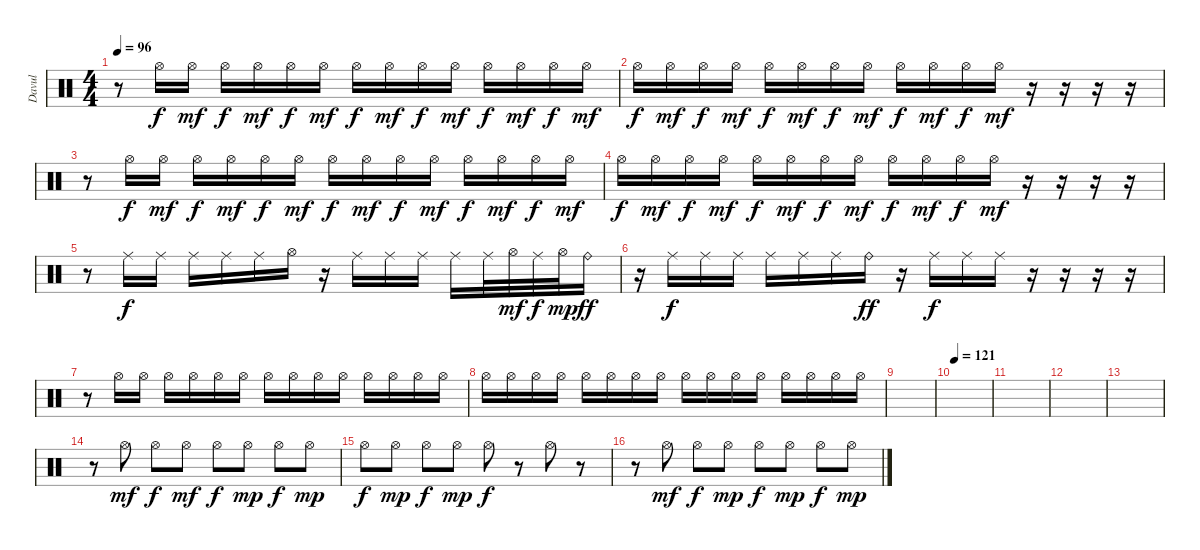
\track ("Davul" "Davul") {instrument percussion}
\staff {score}
\articulation defaults
\ts (4 4)
\tempo 96
\clef neutral
\ks c
r.8{dy mf} "Hi-Hat (open)".16{dy f} "Hi-Hat (open)".16{dy mf} "Hi-Hat (open)".16{dy f} "Hi-Hat (open)".16{dy mf} "Hi-Hat (open)".16{dy f} "Hi-Hat (open)".16{dy mf} "Hi-Hat (open)".16{dy f} "Hi-Hat (open)".16{dy mf} "Hi-Hat (open)".16{dy f} "Hi-Hat (open)".16{dy mf} "Hi-Hat (open)".16{dy f} "Hi-Hat (open)".16{dy mf} "Hi-Hat (open)".16{dy f} "Hi-Hat (open)".16{dy mf} |
"Hi-Hat (open)".16{dy f} "Hi-Hat (open)".16{dy mf} "Hi-Hat (open)".16{dy f} "Hi-Hat (open)".16{dy mf} "Hi-Hat (open)".16{dy f} "Hi-Hat (open)".16{dy mf} "Hi-Hat (open)".16{dy f} "Hi-Hat (open)".16{dy mf} "Hi-Hat (open)".16{dy f} "Hi-Hat (open)".16{dy mf} "Hi-Hat (open)".16{dy f} "Hi-Hat (open)".16{dy mf} r.16 r.16 r.16 r.16 |
r.8 "Hi-Hat (open)".16{dy f} "Hi-Hat (open)".16{dy mf} "Hi-Hat (open)".16{dy f} "Hi-Hat (open)".16{dy mf} "Hi-Hat (open)".16{dy f} "Hi-Hat (open)".16{dy mf} "Hi-Hat (open)".16{dy f} "Hi-Hat (open)".16{dy mf} "Hi-Hat (open)".16{dy f} "Hi-Hat (open)".16{dy mf} "Hi-Hat (open)".16{dy f} "Hi-Hat (open)".16{dy mf} "Hi-Hat (open)".16{dy f} "Hi-Hat (open)".16{dy mf} |
"Hi-Hat (open)".16{dy f} "Hi-Hat (open)".16{dy mf} "Hi-Hat (open)".16{dy f} "Hi-Hat (open)".16{dy mf} "Hi-Hat (open)".16{dy f} "Hi-Hat (open)".16{dy mf} "Hi-Hat (open)".16{dy f} "Hi-Hat (open)".16{dy mf} "Hi-Hat (open)".16{dy f} "Hi-Hat (open)".16{dy mf} "Hi-Hat (open)".16{dy f} "Hi-Hat (open)".16{dy mf} r.16 r.16 r.16 r.16 |
r.8 "Ride (middle)".16{dy f} "Ride (middle)".16 "Ride (middle)".16 "Ride (middle)".16 "Ride (middle)".16 "Hi-Hat (open)".16 r.16 "Ride (middle)".16 "Ride (middle)".16 "Ride (middle)".16 "Ride (middle)".16 "Ride (middle)".32 "Hi-Hat (open)".32{dy mf} "Ride (middle)".32{dy f} "Hi-Hat (open)".32{dy mp} "Ride (bell)".16{dy ff} |
r.16 "Ride (middle)".16{dy f} "Ride (middle)".16 "Ride (middle)".16 "Ride (middle)".16 "Ride (middle)".16 "Ride (middle)".16 "Ride (bell)".16{dy ff} r.16 "Ride (middle)".16{dy f} "Ride (middle)".16 "Ride (middle)".16 r.16 r.16 r.16 r.16 |
r.8 "Hi-Hat (open)".16 "Hi-Hat (open)".16 "Hi-Hat (open)".16 "Hi-Hat (open)".16 "Hi-Hat (open)".16 "Hi-Hat (open)".16 "Hi-Hat (open)".16 "Hi-Hat (open)".16 "Hi-Hat (open)".16 "Hi-Hat (open)".16 "Hi-Hat (open)".16 "Hi-Hat (open)".16 "Hi-Hat (open)".16 "Hi-Hat (open)".16 |
"Hi-Hat (open)".16 "Hi-Hat (open)".16 "Hi-Hat (open)".16 "Hi-Hat (open)".16 "Hi-Hat (open)".16 "Hi-Hat (open)".16 "Hi-Hat (open)".16 "Hi-Hat (open)".16 "Hi-Hat (open)".16 "Hi-Hat (open)".16 "Hi-Hat (open)".16 "Hi-Hat (open)".16 "Hi-Hat (open)".16 "Hi-Hat (open)".16 "Hi-Hat (open)".16 "Hi-Hat (open)".16 |
|
\section ("" "")
\tempo 121
|
|
|
|
r.8 "Hi-Hat (open)".8{dy mf} "Hi-Hat (open)".8{dy f} "Hi-Hat (open)".8{dy mf} "Hi-Hat (open)".8{dy f} "Hi-Hat (open)".8{dy mp} "Hi-Hat (open)".8{dy f} "Hi-Hat (open)".8{dy mp} |
"Hi-Hat (open)".8{dy f} "Hi-Hat (open)".8{dy mp} "Hi-Hat (open)".8{dy f} "Hi-Hat (open)".8{dy mp} "Hi-Hat (open)".8{dy f} r.8 "Hi-Hat (open)".8 r.8 |
r.8 "Hi-Hat (open)".8{dy mf} "Hi-Hat (open)".8{dy f} "Hi-Hat (open)".8{dy mp} "Hi-Hat (open)".8{dy f} "Hi-Hat (open)".8{dy mp} "Hi-Hat (open)".8{dy f} "Hi-Hat (open)".8{dy mp}
